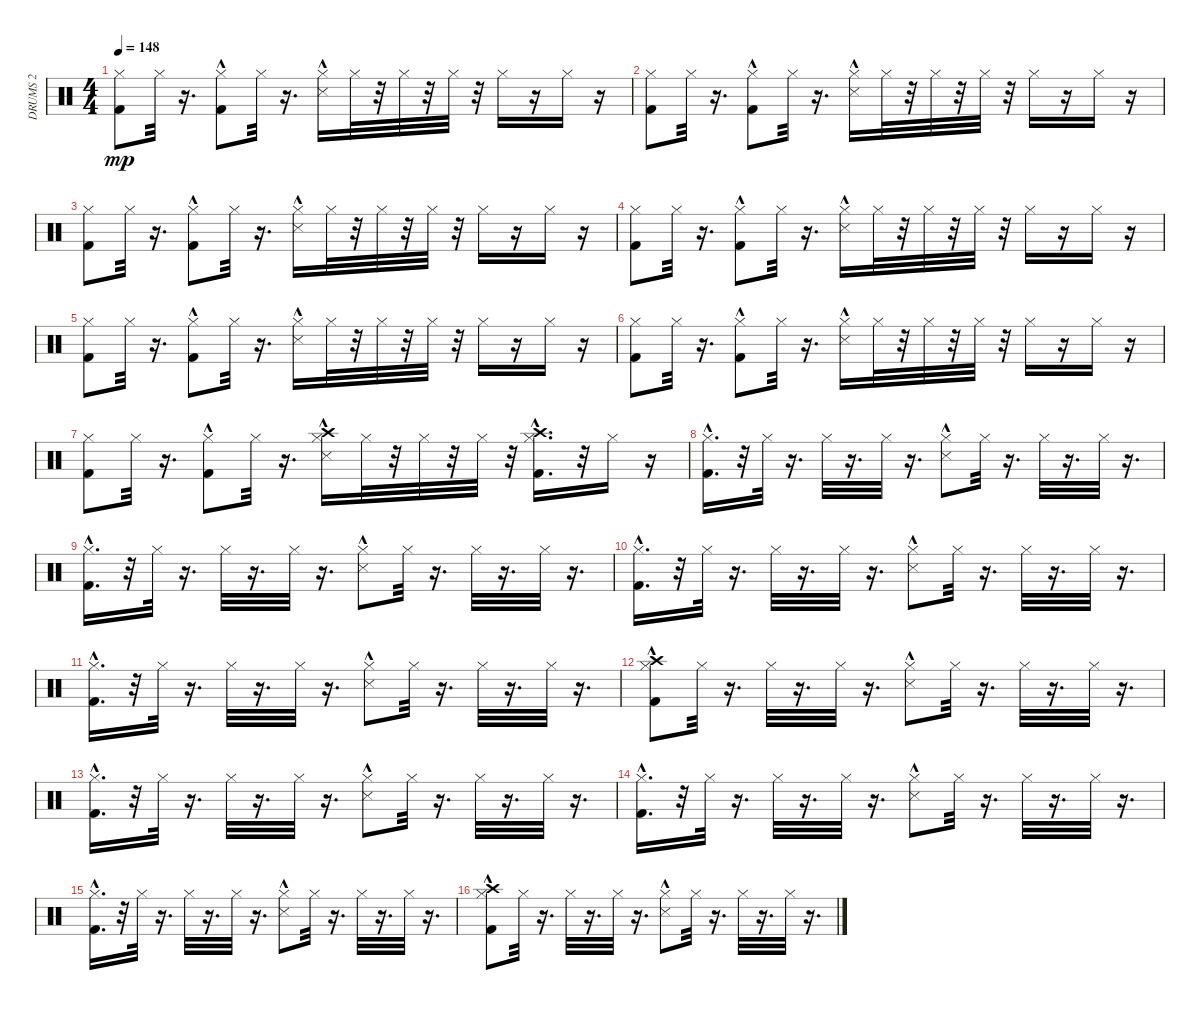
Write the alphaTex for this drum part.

\track ("DRUMS 2" "DRUMS 2") {instrument percussion}
\staff {score}
\articulation defaults
\ts (4 4)
\tempo 148
\clef neutral
\ks c
("Kick (hit) 2" "Hi-Hat (closed)").8{dy mp} "Hi-Hat (closed)".32 r.16{d} ("Kick (hit) 2"{hac} "Hi-Hat (closed)").8 "Hi-Hat (closed)".32 r.16{d} ("Snare (side stick) 3"{hac} "Hi-Hat (closed)").16 "Hi-Hat (closed)".32 r.32 "Hi-Hat (closed)".32 r.32 "Hi-Hat (closed)".32 r.32 "Hi-Hat (closed)".16 r.16 "Hi-Hat (closed)".16 r.16 |
("Kick (hit) 2" "Hi-Hat (closed)").8 "Hi-Hat (closed)".32 r.16{d} ("Kick (hit) 2"{hac} "Hi-Hat (closed)").8 "Hi-Hat (closed)".32 r.16{d} ("Snare (side stick) 3"{hac} "Hi-Hat (closed)").16 "Hi-Hat (closed)".32 r.32 "Hi-Hat (closed)".32 r.32 "Hi-Hat (closed)".32 r.32 "Hi-Hat (closed)".16 r.16 "Hi-Hat (closed)".16 r.16 |
("Kick (hit) 2" "Hi-Hat (closed)").8 "Hi-Hat (closed)".32 r.16{d} ("Kick (hit) 2"{hac} "Hi-Hat (closed)").8 "Hi-Hat (closed)".32 r.16{d} ("Snare (side stick) 3"{hac} "Hi-Hat (closed)").16 "Hi-Hat (closed)".32 r.32 "Hi-Hat (closed)".32 r.32 "Hi-Hat (closed)".32 r.32 "Hi-Hat (closed)".16 r.16 "Hi-Hat (closed)".16 r.16 |
("Kick (hit) 2" "Hi-Hat (closed)").8 "Hi-Hat (closed)".32 r.16{d} ("Kick (hit) 2"{hac} "Hi-Hat (closed)").8 "Hi-Hat (closed)".32 r.16{d} ("Snare (side stick) 3"{hac} "Hi-Hat (closed)").16 "Hi-Hat (closed)".32 r.32 "Hi-Hat (closed)".32 r.32 "Hi-Hat (closed)".32 r.32 "Hi-Hat (closed)".16 r.16 "Hi-Hat (closed)".16 r.16 |
("Kick (hit) 2" "Hi-Hat (closed)").8 "Hi-Hat (closed)".32 r.16{d} ("Kick (hit) 2"{hac} "Hi-Hat (closed)").8 "Hi-Hat (closed)".32 r.16{d} ("Snare (side stick) 3"{hac} "Hi-Hat (closed)").16 "Hi-Hat (closed)".32 r.32 "Hi-Hat (closed)".32 r.32 "Hi-Hat (closed)".32 r.32 "Hi-Hat (closed)".16 r.16 "Hi-Hat (closed)".16 r.16 |
("Kick (hit) 2" "Hi-Hat (closed)").8 "Hi-Hat (closed)".32 r.16{d} ("Kick (hit) 2"{hac} "Hi-Hat (closed)").8 "Hi-Hat (closed)".32 r.16{d} ("Snare (side stick) 3"{hac} "Hi-Hat (closed)").16 "Hi-Hat (closed)".32 r.32 "Hi-Hat (closed)".32 r.32 "Hi-Hat (closed)".32 r.32 "Hi-Hat (closed)".16 r.16 "Hi-Hat (closed)".16 r.16 |
("Kick (hit) 2" "Hi-Hat (closed)").8 "Hi-Hat (closed)".32 r.16{d} ("Kick (hit) 2"{hac} "Hi-Hat (closed)").8 "Hi-Hat (closed)".32 r.16{d} ("Snare (side stick) 3"{hac} "Hi-Hat (closed)" "Crash high (hit)"{hac}).16 "Hi-Hat (closed)".32 r.32 "Hi-Hat (closed)".32 r.32 "Hi-Hat (closed)".32 r.32 ("Kick (hit) 2"{hac} "Hi-Hat (closed)" "Crash high (hit)").16{d} r.32 "Hi-Hat (closed)".16 r.16 |
("Kick (hit) 2"{hac} "Hi-Hat (closed)").16{d} r.32 "Hi-Hat (closed)".32 r.16{d} "Hi-Hat (closed)".32 r.16{d} "Hi-Hat (closed)".32 r.16{d} ("Snare (side stick) 3"{hac} "Hi-Hat (closed)").8 "Hi-Hat (closed)".32 r.16{d} "Hi-Hat (closed)".32 r.16{d} "Hi-Hat (closed)".32 r.16{d} |
("Kick (hit) 2"{hac} "Hi-Hat (closed)").16{d} r.32 "Hi-Hat (closed)".32 r.16{d} "Hi-Hat (closed)".32 r.16{d} "Hi-Hat (closed)".32 r.16{d} ("Snare (side stick) 3"{hac} "Hi-Hat (closed)").8 "Hi-Hat (closed)".32 r.16{d} "Hi-Hat (closed)".32 r.16{d} "Hi-Hat (closed)".32 r.16{d} |
("Kick (hit) 2"{hac} "Hi-Hat (closed)").16{d} r.32 "Hi-Hat (closed)".32 r.16{d} "Hi-Hat (closed)".32 r.16{d} "Hi-Hat (closed)".32 r.16{d} ("Snare (side stick) 3"{hac} "Hi-Hat (closed)").8 "Hi-Hat (closed)".32 r.16{d} "Hi-Hat (closed)".32 r.16{d} "Hi-Hat (closed)".32 r.16{d} |
("Kick (hit) 2"{hac} "Hi-Hat (closed)").16{d} r.32 "Hi-Hat (closed)".32 r.16{d} "Hi-Hat (closed)".32 r.16{d} "Hi-Hat (closed)".32 r.16{d} ("Snare (side stick) 3"{hac} "Hi-Hat (closed)").8 "Hi-Hat (closed)".32 r.16{d} "Hi-Hat (closed)".32 r.16{d} "Hi-Hat (closed)".32 r.16{d} |
("Kick (hit) 2"{hac} "Hi-Hat (closed)" "Crash high (hit)"{hac}).8 "Hi-Hat (closed)".32 r.16{d} "Hi-Hat (closed)".32 r.16{d} "Hi-Hat (closed)".32 r.16{d} ("Snare (side stick) 3"{hac} "Hi-Hat (closed)").8 "Hi-Hat (closed)".32 r.16{d} "Hi-Hat (closed)".32 r.16{d} "Hi-Hat (closed)".32 r.16{d} |
("Kick (hit) 2"{hac} "Hi-Hat (closed)").16{d} r.32 "Hi-Hat (closed)".32 r.16{d} "Hi-Hat (closed)".32 r.16{d} "Hi-Hat (closed)".32 r.16{d} ("Snare (side stick) 3"{hac} "Hi-Hat (closed)").8 "Hi-Hat (closed)".32 r.16{d} "Hi-Hat (closed)".32 r.16{d} "Hi-Hat (closed)".32 r.16{d} |
("Kick (hit) 2"{hac} "Hi-Hat (closed)").16{d} r.32 "Hi-Hat (closed)".32 r.16{d} "Hi-Hat (closed)".32 r.16{d} "Hi-Hat (closed)".32 r.16{d} ("Snare (side stick) 3"{hac} "Hi-Hat (closed)").8 "Hi-Hat (closed)".32 r.16{d} "Hi-Hat (closed)".32 r.16{d} "Hi-Hat (closed)".32 r.16{d} |
("Kick (hit) 2"{hac} "Hi-Hat (closed)").16{d} r.32 "Hi-Hat (closed)".32 r.16{d} "Hi-Hat (closed)".32 r.16{d} "Hi-Hat (closed)".32 r.16{d} ("Snare (side stick) 3"{hac} "Hi-Hat (closed)").8 "Hi-Hat (closed)".32 r.16{d} "Hi-Hat (closed)".32 r.16{d} "Hi-Hat (closed)".32 r.16{d} |
("Kick (hit) 2"{hac} "Hi-Hat (closed)" "Crash high (hit)"{hac}).8 "Hi-Hat (closed)".32 r.16{d} "Hi-Hat (closed)".32 r.16{d} "Hi-Hat (closed)".32 r.16{d} ("Snare (side stick) 3"{hac} "Hi-Hat (closed)").8 "Hi-Hat (closed)".32 r.16{d} "Hi-Hat (closed)".32 r.16{d} "Hi-Hat (closed)".32 r.16{d}
